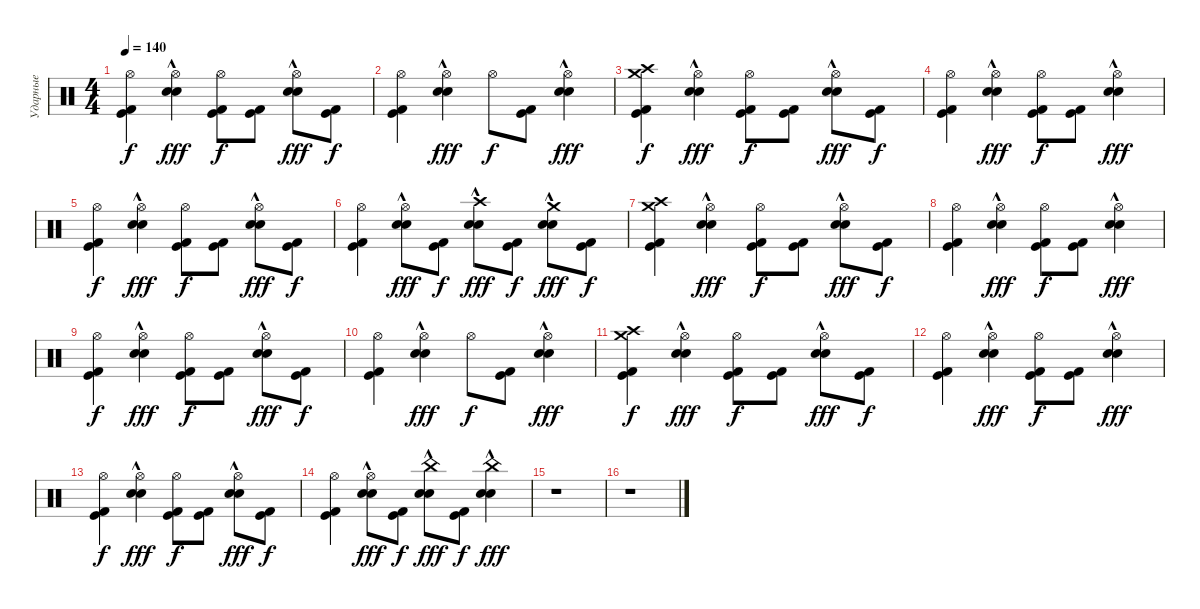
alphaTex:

\track ("Ударные" "Ударные") {instrument percussion}
\staff {score}
\articulation defaults
\ts (4 4)
\tempo 140
\clef neutral
\ks c
("Hi-Hat (open)" "Kick (hit)" "Kick (hit) 2").4{dy f} ("Hi-Hat (open)" "Snare (hit) 2"{hac} "Electric Snare (hit)"{hac}).4{dy fff} ("Hi-Hat (open)" "Kick (hit)" "Kick (hit) 2").8{dy f} ("Kick (hit)" "Kick (hit) 2").8 ("Hi-Hat (open)" "Snare (hit) 2"{hac} "Electric Snare (hit)"{hac}).8{dy fff} ("Kick (hit)" "Kick (hit) 2").8{dy f} |
("Hi-Hat (open)" "Kick (hit)" "Kick (hit) 2").4 ("Hi-Hat (open)" "Snare (hit) 2"{hac} "Electric Snare (hit)"{hac}).4{dy fff} "Hi-Hat (open)".8{dy f} ("Kick (hit)" "Kick (hit) 2").8 ("Hi-Hat (open)" "Snare (hit) 2"{hac} "Electric Snare (hit)"{hac}).4{dy fff} |
("Crash high (hit)" "Kick (hit)" "Kick (hit) 2" "Crash medium (hit)").4{dy f} ("Hi-Hat (open)" "Snare (hit) 2"{hac} "Electric Snare (hit)"{hac}).4{dy fff} ("Hi-Hat (open)" "Kick (hit)" "Kick (hit) 2").8{dy f} ("Kick (hit)" "Kick (hit) 2").8 ("Hi-Hat (open)" "Snare (hit) 2"{hac} "Electric Snare (hit)"{hac}).8{dy fff} ("Kick (hit)" "Kick (hit) 2").8{dy f} |
("Hi-Hat (open)" "Kick (hit)" "Kick (hit) 2").4 ("Hi-Hat (open)" "Snare (hit) 2"{hac} "Electric Snare (hit)"{hac}).4{dy fff} ("Hi-Hat (open)" "Kick (hit)" "Kick (hit) 2").8{dy f} ("Kick (hit)" "Kick (hit) 2").8 ("Hi-Hat (open)" "Snare (hit) 2"{hac} "Electric Snare (hit)"{hac}).4{dy fff} |
("Hi-Hat (open)" "Kick (hit)" "Kick (hit) 2").4{dy f} ("Hi-Hat (open)" "Snare (hit) 2"{hac} "Electric Snare (hit)"{hac}).4{dy fff} ("Hi-Hat (open)" "Kick (hit)" "Kick (hit) 2").8{dy f} ("Kick (hit)" "Kick (hit) 2").8 ("Hi-Hat (open)" "Snare (hit) 2"{hac} "Electric Snare (hit)"{hac}).8{dy fff} ("Kick (hit)" "Kick (hit) 2").8{dy f} |
("Hi-Hat (open)" "Kick (hit)" "Kick (hit) 2").4 ("Hi-Hat (open)" "Snare (hit) 2"{hac} "Electric Snare (hit)"{hac}).8{dy fff} ("Kick (hit)" "Kick (hit) 2").8{dy f} ("Crash high (hit)" "Snare (hit) 2"{hac} "Electric Snare (hit)"{hac}).8{dy fff} ("Kick (hit)" "Kick (hit) 2").8{dy f} ("Crash medium (hit)" "Snare (hit) 2"{hac} "Electric Snare (hit)"{hac}).8{dy fff} ("Kick (hit)" "Kick (hit) 2").8{dy f} |
("Crash high (hit)" "Kick (hit)" "Kick (hit) 2" "Crash medium (hit)").4 ("Hi-Hat (open)" "Snare (hit) 2"{hac} "Electric Snare (hit)"{hac}).4{dy fff} ("Hi-Hat (open)" "Kick (hit)" "Kick (hit) 2").8{dy f} ("Kick (hit)" "Kick (hit) 2").8 ("Hi-Hat (open)" "Snare (hit) 2"{hac} "Electric Snare (hit)"{hac}).8{dy fff} ("Kick (hit)" "Kick (hit) 2").8{dy f} |
("Hi-Hat (open)" "Kick (hit)" "Kick (hit) 2").4 ("Hi-Hat (open)" "Snare (hit) 2"{hac} "Electric Snare (hit)"{hac}).4{dy fff} ("Hi-Hat (open)" "Kick (hit)" "Kick (hit) 2").8{dy f} ("Kick (hit)" "Kick (hit) 2").8 ("Hi-Hat (open)" "Snare (hit) 2"{hac} "Electric Snare (hit)"{hac}).4{dy fff} |
("Hi-Hat (open)" "Kick (hit)" "Kick (hit) 2").4{dy f} ("Hi-Hat (open)" "Snare (hit) 2"{hac} "Electric Snare (hit)"{hac}).4{dy fff} ("Hi-Hat (open)" "Kick (hit)" "Kick (hit) 2").8{dy f} ("Kick (hit)" "Kick (hit) 2").8 ("Hi-Hat (open)" "Snare (hit) 2"{hac} "Electric Snare (hit)"{hac}).8{dy fff} ("Kick (hit)" "Kick (hit) 2").8{dy f} |
("Hi-Hat (open)" "Kick (hit)" "Kick (hit) 2").4 ("Hi-Hat (open)" "Snare (hit) 2"{hac} "Electric Snare (hit)"{hac}).4{dy fff} "Hi-Hat (open)".8{dy f} ("Kick (hit)" "Kick (hit) 2").8 ("Hi-Hat (open)" "Snare (hit) 2"{hac} "Electric Snare (hit)"{hac}).4{dy fff} |
("Crash high (hit)" "Kick (hit)" "Kick (hit) 2" "Crash medium (hit)").4{dy f} ("Hi-Hat (open)" "Snare (hit) 2"{hac} "Electric Snare (hit)"{hac}).4{dy fff} ("Hi-Hat (open)" "Kick (hit)" "Kick (hit) 2").8{dy f} ("Kick (hit)" "Kick (hit) 2").8 ("Hi-Hat (open)" "Snare (hit) 2"{hac} "Electric Snare (hit)"{hac}).8{dy fff} ("Kick (hit)" "Kick (hit) 2").8{dy f} |
("Hi-Hat (open)" "Kick (hit)" "Kick (hit) 2").4 ("Hi-Hat (open)" "Snare (hit) 2"{hac} "Electric Snare (hit)"{hac}).4{dy fff} ("Hi-Hat (open)" "Kick (hit)" "Kick (hit) 2").8{dy f} ("Kick (hit)" "Kick (hit) 2").8 ("Hi-Hat (open)" "Snare (hit) 2"{hac} "Electric Snare (hit)"{hac}).4{dy fff} |
("Hi-Hat (open)" "Kick (hit)" "Kick (hit) 2").4{dy f} ("Hi-Hat (open)" "Snare (hit) 2"{hac} "Electric Snare (hit)"{hac}).4{dy fff} ("Hi-Hat (open)" "Kick (hit)" "Kick (hit) 2").8{dy f} ("Kick (hit)" "Kick (hit) 2").8 ("Hi-Hat (open)" "Snare (hit) 2"{hac} "Electric Snare (hit)"{hac}).8{dy fff} ("Kick (hit)" "Kick (hit) 2").8{dy f} |
("Hi-Hat (open)" "Kick (hit)" "Kick (hit) 2").4 ("Hi-Hat (open)" "Snare (hit) 2"{hac} "Electric Snare (hit)"{hac}).8{dy fff} ("Kick (hit)" "Kick (hit) 2").8{dy f} ("China (hit)" "Snare (hit) 2"{hac} "Electric Snare (hit)"{hac}).8{dy fff} ("Kick (hit)" "Kick (hit) 2").8{dy f} ("China (hit)" "Snare (hit) 2"{hac} "Electric Snare (hit)"{hac}).4{dy fff} |
r.1 |
r.1
